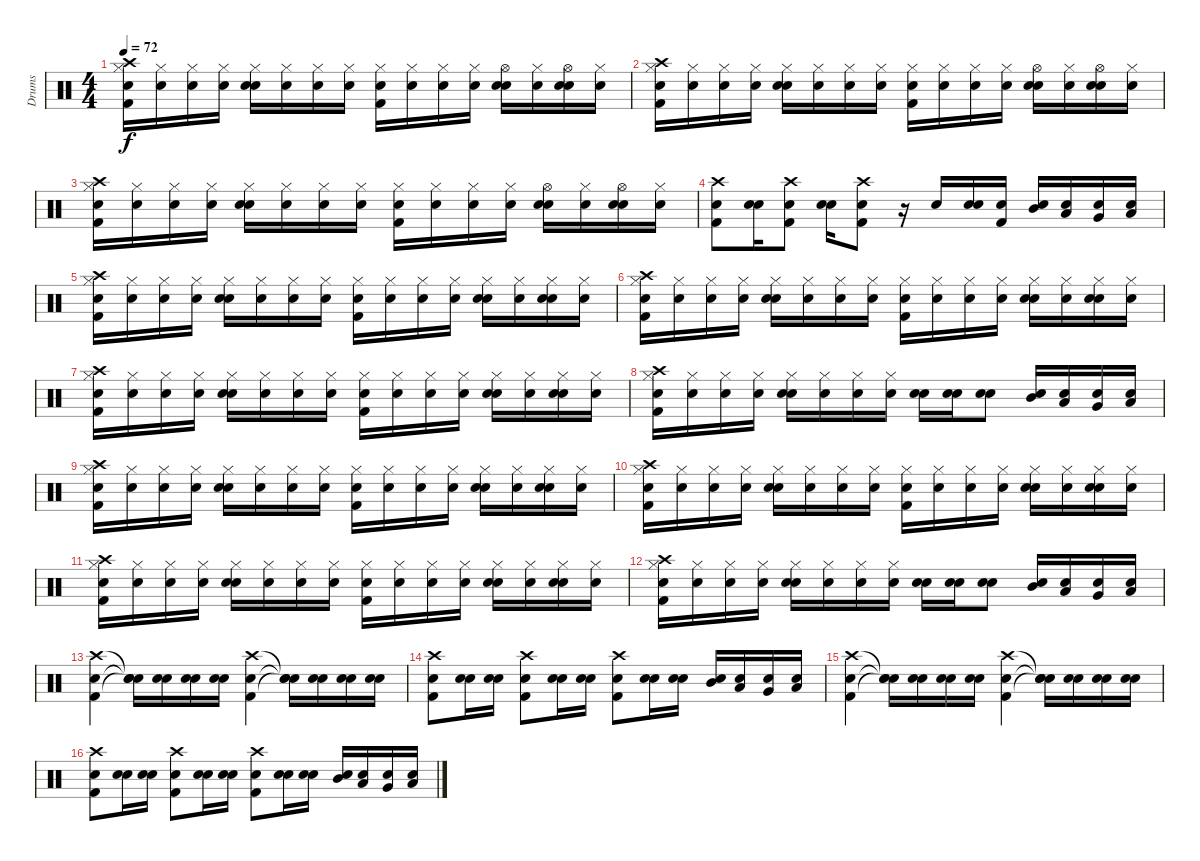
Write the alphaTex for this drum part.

\track ("Drums" "Drums") {instrument percussion}
\staff {score}
\articulation defaults
\ts (4 4)
\tempo 72
\clef neutral
\ks c
("Snare (hit)" "Kick (hit) 2" "Hi-Hat (closed)" "Crash high (hit)").16{dy f} ("Snare (hit)" "Hi-Hat (closed)").16 ("Snare (hit)" "Hi-Hat (closed)").16 ("Snare (hit)" "Hi-Hat (closed)").16 ("Snare (hit)" "Snare (hit) 2" "Hi-Hat (closed)").16 ("Snare (hit)" "Hi-Hat (closed)").16 ("Snare (hit)" "Hi-Hat (closed)").16 ("Snare (hit)" "Hi-Hat (closed)").16 ("Snare (hit)" "Kick (hit) 2" "Hi-Hat (closed)").16 ("Snare (hit)" "Hi-Hat (closed)").16 ("Snare (hit)" "Hi-Hat (closed)").16 ("Snare (hit)" "Hi-Hat (closed)").16 ("Snare (hit)" "Snare (hit) 2" "Hi-Hat (open)").16 ("Snare (hit)" "Hi-Hat (closed)").16 ("Snare (hit)" "Snare (hit) 2" "Hi-Hat (open)").16 ("Snare (hit)" "Hi-Hat (closed)").16 |
("Snare (hit)" "Kick (hit) 2" "Hi-Hat (closed)" "Crash high (hit)").16 ("Snare (hit)" "Hi-Hat (closed)").16 ("Snare (hit)" "Hi-Hat (closed)").16 ("Snare (hit)" "Hi-Hat (closed)").16 ("Snare (hit)" "Snare (hit) 2" "Hi-Hat (closed)").16 ("Snare (hit)" "Hi-Hat (closed)").16 ("Snare (hit)" "Hi-Hat (closed)").16 ("Snare (hit)" "Hi-Hat (closed)").16 ("Snare (hit)" "Kick (hit) 2" "Hi-Hat (closed)").16 ("Snare (hit)" "Hi-Hat (closed)").16 ("Snare (hit)" "Hi-Hat (closed)").16 ("Snare (hit)" "Hi-Hat (closed)").16 ("Snare (hit)" "Snare (hit) 2" "Hi-Hat (open)").16 ("Snare (hit)" "Hi-Hat (closed)").16 ("Snare (hit)" "Snare (hit) 2" "Hi-Hat (open)").16 ("Snare (hit)" "Hi-Hat (closed)").16 |
("Snare (hit)" "Kick (hit) 2" "Hi-Hat (closed)" "Crash high (hit)").16 ("Snare (hit)" "Hi-Hat (closed)").16 ("Snare (hit)" "Hi-Hat (closed)").16 ("Snare (hit)" "Hi-Hat (closed)").16 ("Snare (hit)" "Snare (hit) 2" "Hi-Hat (closed)").16 ("Snare (hit)" "Hi-Hat (closed)").16 ("Snare (hit)" "Hi-Hat (closed)").16 ("Snare (hit)" "Hi-Hat (closed)").16 ("Snare (hit)" "Kick (hit) 2" "Hi-Hat (closed)").16 ("Snare (hit)" "Hi-Hat (closed)").16 ("Snare (hit)" "Hi-Hat (closed)").16 ("Snare (hit)" "Hi-Hat (closed)").16 ("Snare (hit)" "Snare (hit) 2" "Hi-Hat (open)").16 ("Snare (hit)" "Hi-Hat (closed)").16 ("Snare (hit)" "Snare (hit) 2" "Hi-Hat (open)").16 ("Snare (hit)" "Hi-Hat (closed)").16 |
("Snare (hit)" "Kick (hit) 2" "Crash high (hit)").8 ("Snare (hit)" "Snare (hit) 2").16 ("Snare (hit)" "Kick (hit) 2" "Crash high (hit)").8 ("Snare (hit)" "Snare (hit) 2").16 ("Snare (hit)" "Kick (hit) 2" "Crash high (hit)").8 r.16 "Snare (hit) 2".16 ("Snare (hit)" "Snare (hit) 2").16 ("Snare (hit)" "Kick (hit) 2").16 ("Snare (hit)" "Mid Tom (hit)").16 ("Snare (hit)" "Low Tom (hit)").16 ("Snare (hit)" "Very Low Tom (hit)").16 ("Snare (hit)" "Low Floor Tom (hit)").16 |
("Snare (hit)" "Kick (hit) 2" "Hi-Hat (closed)" "Crash high (hit)").16 ("Snare (hit)" "Hi-Hat (closed)").16 ("Snare (hit)" "Hi-Hat (closed)").16 ("Snare (hit)" "Hi-Hat (closed)").16 ("Snare (hit)" "Snare (hit) 2" "Hi-Hat (closed)").16 ("Snare (hit)" "Hi-Hat (closed)").16 ("Snare (hit)" "Hi-Hat (closed)").16 ("Snare (hit)" "Hi-Hat (closed)").16 ("Snare (hit)" "Kick (hit) 2" "Hi-Hat (closed)").16 ("Snare (hit)" "Hi-Hat (closed)").16 ("Snare (hit)" "Hi-Hat (closed)").16 ("Snare (hit)" "Hi-Hat (closed)").16 ("Snare (hit)" "Snare (hit) 2" "Hi-Hat (closed)").16 ("Snare (hit)" "Hi-Hat (closed)").16 ("Snare (hit)" "Snare (hit) 2" "Hi-Hat (closed)").16 ("Snare (hit)" "Hi-Hat (closed)").16 |
("Snare (hit)" "Kick (hit) 2" "Hi-Hat (closed)" "Crash high (hit)").16 ("Snare (hit)" "Hi-Hat (closed)").16 ("Snare (hit)" "Hi-Hat (closed)").16 ("Snare (hit)" "Hi-Hat (closed)").16 ("Snare (hit)" "Snare (hit) 2" "Hi-Hat (closed)").16 ("Snare (hit)" "Hi-Hat (closed)").16 ("Snare (hit)" "Hi-Hat (closed)").16 ("Snare (hit)" "Hi-Hat (closed)").16 ("Snare (hit)" "Kick (hit) 2" "Hi-Hat (closed)").16 ("Snare (hit)" "Hi-Hat (closed)").16 ("Snare (hit)" "Hi-Hat (closed)").16 ("Snare (hit)" "Hi-Hat (closed)").16 ("Snare (hit)" "Snare (hit) 2" "Hi-Hat (closed)").16 ("Snare (hit)" "Hi-Hat (closed)").16 ("Snare (hit)" "Snare (hit) 2" "Hi-Hat (closed)").16 ("Snare (hit)" "Hi-Hat (closed)").16 |
("Snare (hit)" "Kick (hit) 2" "Hi-Hat (closed)" "Crash high (hit)").16 ("Snare (hit)" "Hi-Hat (closed)").16 ("Snare (hit)" "Hi-Hat (closed)").16 ("Snare (hit)" "Hi-Hat (closed)").16 ("Snare (hit)" "Snare (hit) 2" "Hi-Hat (closed)").16 ("Snare (hit)" "Hi-Hat (closed)").16 ("Snare (hit)" "Hi-Hat (closed)").16 ("Snare (hit)" "Hi-Hat (closed)").16 ("Snare (hit)" "Kick (hit) 2" "Hi-Hat (closed)").16 ("Snare (hit)" "Hi-Hat (closed)").16 ("Snare (hit)" "Hi-Hat (closed)").16 ("Snare (hit)" "Hi-Hat (closed)").16 ("Snare (hit)" "Snare (hit) 2" "Hi-Hat (closed)").16 ("Snare (hit)" "Hi-Hat (closed)").16 ("Snare (hit)" "Snare (hit) 2" "Hi-Hat (closed)").16 ("Snare (hit)" "Hi-Hat (closed)").16 |
("Snare (hit)" "Kick (hit) 2" "Hi-Hat (closed)" "Crash high (hit)").16 ("Snare (hit)" "Hi-Hat (closed)").16 ("Snare (hit)" "Hi-Hat (closed)").16 ("Snare (hit)" "Hi-Hat (closed)").16 ("Snare (hit)" "Snare (hit) 2" "Hi-Hat (closed)").16 ("Snare (hit)" "Hi-Hat (closed)").16 ("Snare (hit)" "Hi-Hat (closed)").16 ("Snare (hit)" "Hi-Hat (closed)").16 ("Snare (hit)" "Snare (hit) 2").16 ("Snare (hit)" "Snare (hit) 2").16 ("Snare (hit)" "Snare (hit) 2").8 ("Snare (hit)" "Mid Tom (hit)").16 ("Snare (hit)" "Low Tom (hit)").16 ("Snare (hit)" "Very Low Tom (hit)").16 ("Snare (hit)" "Low Floor Tom (hit)").16 |
("Snare (hit)" "Kick (hit) 2" "Hi-Hat (closed)" "Crash high (hit)").16 ("Snare (hit)" "Hi-Hat (closed)").16 ("Snare (hit)" "Hi-Hat (closed)").16 ("Snare (hit)" "Hi-Hat (closed)").16 ("Snare (hit)" "Snare (hit) 2" "Hi-Hat (closed)").16 ("Snare (hit)" "Hi-Hat (closed)").16 ("Snare (hit)" "Hi-Hat (closed)").16 ("Snare (hit)" "Hi-Hat (closed)").16 ("Snare (hit)" "Kick (hit) 2" "Hi-Hat (closed)").16 ("Snare (hit)" "Hi-Hat (closed)").16 ("Snare (hit)" "Hi-Hat (closed)").16 ("Snare (hit)" "Hi-Hat (closed)").16 ("Snare (hit)" "Snare (hit) 2" "Hi-Hat (closed)").16 ("Snare (hit)" "Hi-Hat (closed)").16 ("Snare (hit)" "Snare (hit) 2" "Hi-Hat (closed)").16 ("Snare (hit)" "Hi-Hat (closed)").16 |
("Snare (hit)" "Kick (hit) 2" "Hi-Hat (closed)" "Crash high (hit)").16 ("Snare (hit)" "Hi-Hat (closed)").16 ("Snare (hit)" "Hi-Hat (closed)").16 ("Snare (hit)" "Hi-Hat (closed)").16 ("Snare (hit)" "Snare (hit) 2" "Hi-Hat (closed)").16 ("Snare (hit)" "Hi-Hat (closed)").16 ("Snare (hit)" "Hi-Hat (closed)").16 ("Snare (hit)" "Hi-Hat (closed)").16 ("Snare (hit)" "Kick (hit) 2" "Hi-Hat (closed)").16 ("Snare (hit)" "Hi-Hat (closed)").16 ("Snare (hit)" "Hi-Hat (closed)").16 ("Snare (hit)" "Hi-Hat (closed)").16 ("Snare (hit)" "Snare (hit) 2" "Hi-Hat (closed)").16 ("Snare (hit)" "Hi-Hat (closed)").16 ("Snare (hit)" "Snare (hit) 2" "Hi-Hat (closed)").16 ("Snare (hit)" "Hi-Hat (closed)").16 |
("Snare (hit)" "Kick (hit) 2" "Hi-Hat (closed)" "Crash high (hit)").16 ("Snare (hit)" "Hi-Hat (closed)").16 ("Snare (hit)" "Hi-Hat (closed)").16 ("Snare (hit)" "Hi-Hat (closed)").16 ("Snare (hit)" "Snare (hit) 2" "Hi-Hat (closed)").16 ("Snare (hit)" "Hi-Hat (closed)").16 ("Snare (hit)" "Hi-Hat (closed)").16 ("Snare (hit)" "Hi-Hat (closed)").16 ("Snare (hit)" "Kick (hit) 2" "Hi-Hat (closed)").16 ("Snare (hit)" "Hi-Hat (closed)").16 ("Snare (hit)" "Hi-Hat (closed)").16 ("Snare (hit)" "Hi-Hat (closed)").16 ("Snare (hit)" "Snare (hit) 2" "Hi-Hat (closed)").16 ("Snare (hit)" "Hi-Hat (closed)").16 ("Snare (hit)" "Snare (hit) 2" "Hi-Hat (closed)").16 ("Snare (hit)" "Hi-Hat (closed)").16 |
("Snare (hit)" "Kick (hit) 2" "Hi-Hat (closed)" "Crash high (hit)").16 ("Snare (hit)" "Hi-Hat (closed)").16 ("Snare (hit)" "Hi-Hat (closed)").16 ("Snare (hit)" "Hi-Hat (closed)").16 ("Snare (hit)" "Snare (hit) 2" "Hi-Hat (closed)").16 ("Snare (hit)" "Hi-Hat (closed)").16 ("Snare (hit)" "Hi-Hat (closed)").16 ("Snare (hit)" "Hi-Hat (closed)").16 ("Snare (hit)" "Snare (hit) 2").16 ("Snare (hit)" "Snare (hit) 2").16 ("Snare (hit)" "Snare (hit) 2").8 ("Snare (hit)" "Mid Tom (hit)").16 ("Snare (hit)" "Low Tom (hit)").16 ("Snare (hit)" "Very Low Tom (hit)").16 ("Snare (hit)" "Low Floor Tom (hit)").16 |
("Snare (hit)" "Kick (hit) 2" "Crash high (hit)").4 ("Snare (hit)"{t} "Snare (hit)"{t} "Snare (hit)"{t}).16 ("Snare (hit)" "Snare (hit) 2").16 ("Snare (hit)" "Snare (hit) 2").16 ("Snare (hit)" "Snare (hit) 2").16 ("Snare (hit)" "Kick (hit) 2" "Crash high (hit)").4 ("Snare (hit)"{t} "Snare (hit)"{t} "Snare (hit)"{t}).16 ("Snare (hit)" "Snare (hit) 2").16 ("Snare (hit)" "Snare (hit) 2").16 ("Snare (hit)" "Snare (hit) 2").16 |
("Snare (hit)" "Kick (hit) 2" "Crash high (hit)").8 ("Snare (hit)" "Snare (hit) 2").16 ("Snare (hit)" "Snare (hit) 2").16 ("Snare (hit)" "Kick (hit) 2" "Crash high (hit)").8 ("Snare (hit)" "Snare (hit) 2").16 ("Snare (hit)" "Snare (hit) 2").16 ("Snare (hit)" "Kick (hit) 2" "Crash high (hit)").8 ("Snare (hit)" "Snare (hit) 2").16 ("Snare (hit)" "Snare (hit) 2").16 ("Snare (hit)" "Mid Tom (hit)").16 ("Snare (hit)" "Low Tom (hit)").16 ("Snare (hit)" "Very Low Tom (hit)").16 ("Snare (hit)" "Low Floor Tom (hit)").16 |
("Snare (hit)" "Kick (hit) 2" "Crash high (hit)").4 ("Snare (hit)"{t} "Snare (hit)"{t} "Snare (hit)"{t}).16 ("Snare (hit)" "Snare (hit) 2").16 ("Snare (hit)" "Snare (hit) 2").16 ("Snare (hit)" "Snare (hit) 2").16 ("Snare (hit)" "Kick (hit) 2" "Crash high (hit)").4 ("Snare (hit)"{t} "Snare (hit)"{t} "Snare (hit)"{t}).16 ("Snare (hit)" "Snare (hit) 2").16 ("Snare (hit)" "Snare (hit) 2").16 ("Snare (hit)" "Snare (hit) 2").16 |
("Snare (hit)" "Kick (hit) 2" "Crash high (hit)").8 ("Snare (hit)" "Snare (hit) 2").16 ("Snare (hit)" "Snare (hit) 2").16 ("Snare (hit)" "Kick (hit) 2" "Crash high (hit)").8 ("Snare (hit)" "Snare (hit) 2").16 ("Snare (hit)" "Snare (hit) 2").16 ("Snare (hit)" "Kick (hit) 2" "Crash high (hit)").8 ("Snare (hit)" "Snare (hit) 2").16 ("Snare (hit)" "Snare (hit) 2").16 ("Snare (hit)" "Mid Tom (hit)").16 ("Snare (hit)" "Low Tom (hit)").16 ("Snare (hit)" "Very Low Tom (hit)").16 ("Snare (hit)" "Low Floor Tom (hit)").16
